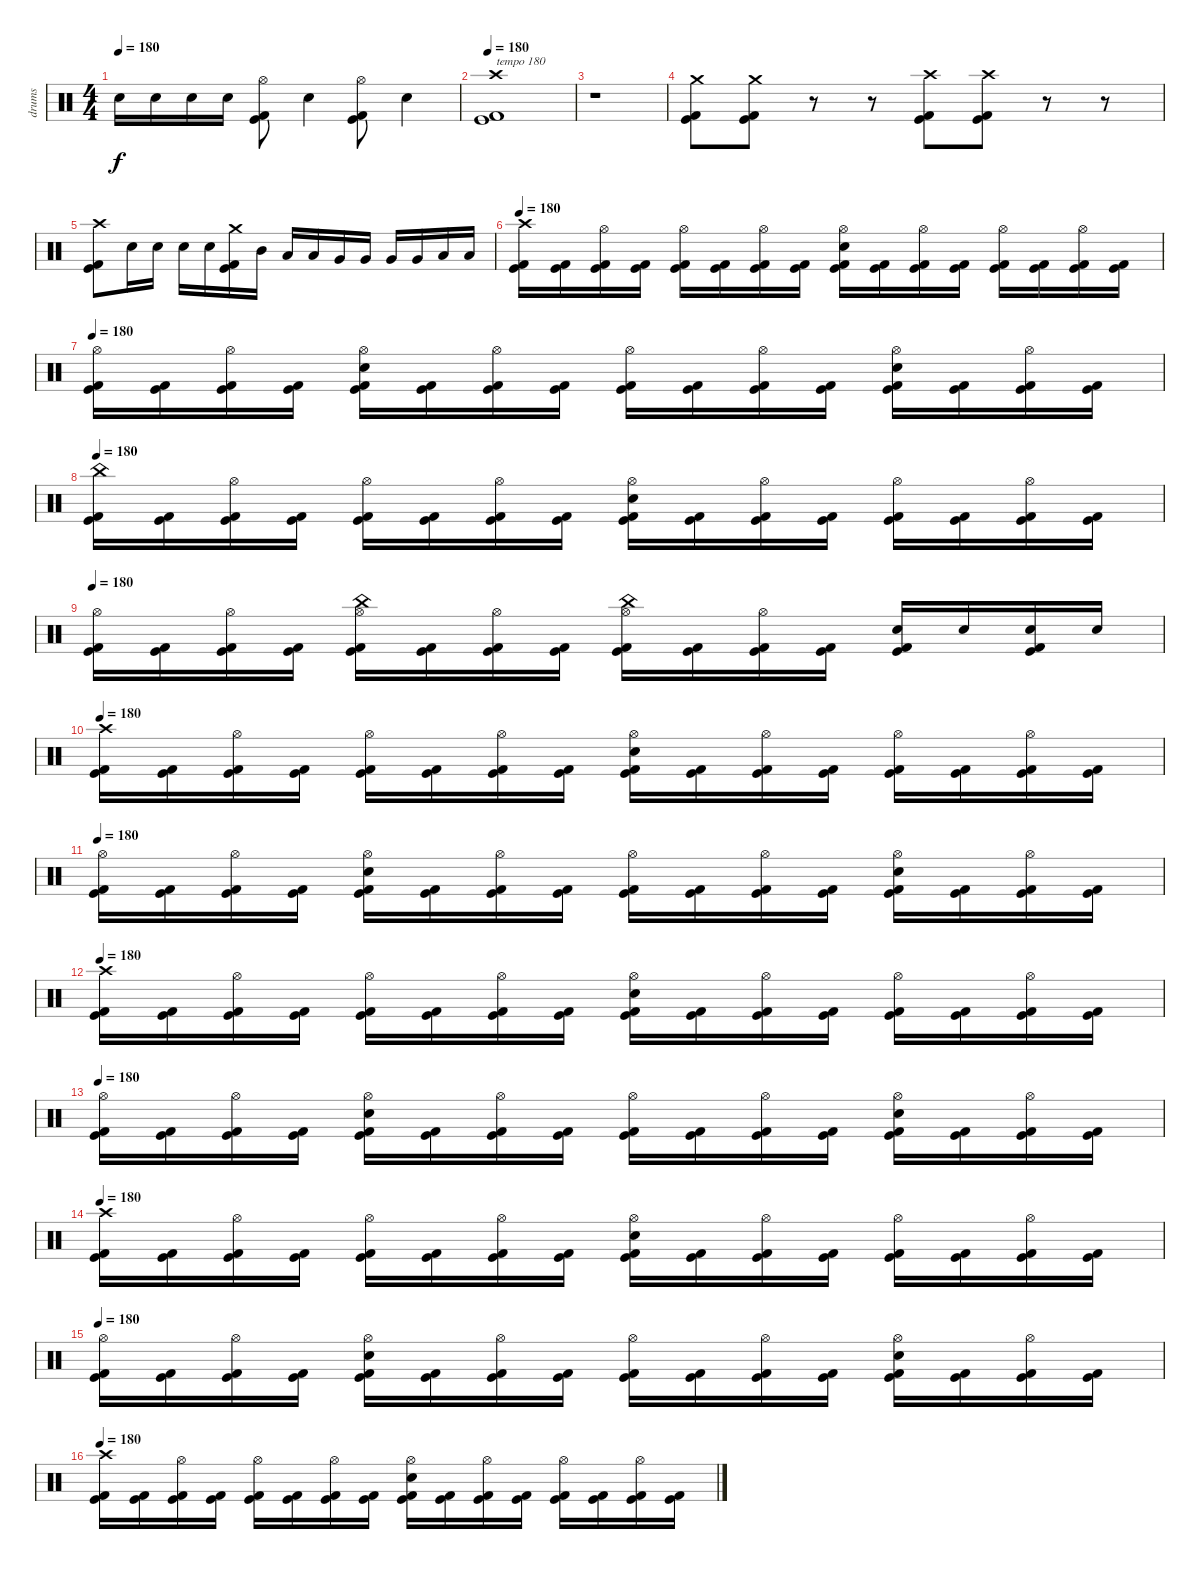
\track ("drums" "drums") {instrument percussion}
\staff {score}
\articulation defaults
\ts (4 4)
\tempo 180
\clef neutral
\ks c "Electric Snare (hit)".16{dy f} "Electric Snare (hit)".16 "Electric Snare (hit)".16 "Electric Snare (hit)".16
("Hi-Hat (open)" "Kick (hit) 2" "Kick (hit)").8 "Electric Snare (hit)".4 ("Hi-Hat (open)" "Kick (hit) 2" "Kick (hit)").8 "Electric Snare (hit)".4 |
\tempo 180
("Crash high (hit)" "Kick (hit) 2" "Kick (hit)").1{txt "tempo 180"} |
r.1 |
("Crash medium (hit)" "Kick (hit) 2" "Kick (hit)").8 ("Crash medium (hit)" "Kick (hit) 2" "Kick (hit)").8 r.8 r.8 ("Crash high (hit)" "Kick (hit) 2" "Kick (hit)").8 ("Crash high (hit)" "Kick (hit) 2" "Kick (hit)").8 r.8 r.8 |
("Crash high (hit)" "Kick (hit) 2" "Kick (hit)").8 "Electric Snare (hit)".16 "Electric Snare (hit)".16 "Electric Snare (hit)".16 "Electric Snare (hit)".16 ("Crash medium (hit)" "Kick (hit) 2" "Kick (hit)").16 "Mid Tom (hit)".16 "Low Tom (hit)".16 "Low Tom (hit)".16 "Very Low Tom (hit)".16 "Very Low Tom (hit)".16 "Very Low Tom (hit)".16 "Very Low Tom (hit)".16 "Low Floor Tom (hit)".16 "Low Floor Tom (hit)".16 |
\tempo 180
("Crash high (hit)" "Kick (hit) 2" "Kick (hit)").16 ("Kick (hit) 2" "Kick (hit)").16 ("Hi-Hat (open)" "Kick (hit) 2" "Kick (hit)").16 ("Kick (hit) 2" "Kick (hit)").16 ("Hi-Hat (open)" "Kick (hit) 2" "Kick (hit)").16 ("Kick (hit) 2" "Kick (hit)").16 ("Hi-Hat (open)" "Kick (hit) 2" "Kick (hit)").16 ("Kick (hit) 2" "Kick (hit)").16 ("Hi-Hat (open)" "Electric Snare (hit)" "Kick (hit) 2" "Kick (hit)").16 ("Kick (hit) 2" "Kick (hit)").16 ("Hi-Hat (open)" "Kick (hit) 2" "Kick (hit)").16 ("Kick (hit) 2" "Kick (hit)").16 ("Hi-Hat (open)" "Kick (hit) 2" "Kick (hit)").16 ("Kick (hit) 2" "Kick (hit)").16 ("Hi-Hat (open)" "Kick (hit) 2" "Kick (hit)").16 ("Kick (hit) 2" "Kick (hit)").16 |
\tempo 180
("Hi-Hat (open)" "Kick (hit) 2" "Kick (hit)").16 ("Kick (hit) 2" "Kick (hit)").16 ("Hi-Hat (open)" "Kick (hit) 2" "Kick (hit)").16 ("Kick (hit) 2" "Kick (hit)").16 ("Hi-Hat (open)" "Electric Snare (hit)" "Kick (hit) 2" "Kick (hit)").16 ("Kick (hit) 2" "Kick (hit)").16 ("Hi-Hat (open)" "Kick (hit) 2" "Kick (hit)").16 ("Kick (hit) 2" "Kick (hit)").16 ("Hi-Hat (open)" "Kick (hit) 2" "Kick (hit)").16 ("Kick (hit) 2" "Kick (hit)").16 ("Hi-Hat (open)" "Kick (hit) 2" "Kick (hit)").16 ("Kick (hit) 2" "Kick (hit)").16 ("Hi-Hat (open)" "Electric Snare (hit)" "Kick (hit) 2" "Kick (hit)").16 ("Kick (hit) 2" "Kick (hit)").16 ("Hi-Hat (open)" "Kick (hit) 2" "Kick (hit)").16 ("Kick (hit) 2" "Kick (hit)").16 |
\tempo 180
("China (hit)" "Kick (hit) 2" "Kick (hit)").16 ("Kick (hit) 2" "Kick (hit)").16 ("Hi-Hat (open)" "Kick (hit) 2" "Kick (hit)").16 ("Kick (hit) 2" "Kick (hit)").16 ("Hi-Hat (open)" "Kick (hit) 2" "Kick (hit)").16 ("Kick (hit) 2" "Kick (hit)").16 ("Hi-Hat (open)" "Kick (hit) 2" "Kick (hit)").16 ("Kick (hit) 2" "Kick (hit)").16 ("Hi-Hat (open)" "Electric Snare (hit)" "Kick (hit) 2" "Kick (hit)").16 ("Kick (hit) 2" "Kick (hit)").16 ("Hi-Hat (open)" "Kick (hit) 2" "Kick (hit)").16 ("Kick (hit) 2" "Kick (hit)").16 ("Hi-Hat (open)" "Kick (hit) 2" "Kick (hit)").16 ("Kick (hit) 2" "Kick (hit)").16 ("Hi-Hat (open)" "Kick (hit) 2" "Kick (hit)").16 ("Kick (hit) 2" "Kick (hit)").16 |
\tempo 180
("Hi-Hat (open)" "Kick (hit) 2" "Kick (hit)").16 ("Kick (hit) 2" "Kick (hit)").16 ("Hi-Hat (open)" "Kick (hit) 2" "Kick (hit)").16 ("Kick (hit) 2" "Kick (hit)").16 ("Hi-Hat (open)" "China (hit)" "Kick (hit) 2" "Kick (hit)").16 ("Kick (hit) 2" "Kick (hit)").16 ("Hi-Hat (open)" "Kick (hit) 2" "Kick (hit)").16 ("Kick (hit) 2" "Kick (hit)").16 ("Hi-Hat (open)" "China (hit)" "Kick (hit) 2" "Kick (hit)").16 ("Kick (hit) 2" "Kick (hit)").16 ("Hi-Hat (open)" "Kick (hit) 2" "Kick (hit)").16 ("Kick (hit) 2" "Kick (hit)").16 ("Electric Snare (hit)" "Kick (hit) 2" "Kick (hit)").16 "Electric Snare (hit)".16 ("Electric Snare (hit)" "Kick (hit) 2" "Kick (hit)").16 "Electric Snare (hit)".16 |
\tempo 180
("Crash high (hit)" "Kick (hit) 2" "Kick (hit)").16 ("Kick (hit) 2" "Kick (hit)").16 ("Hi-Hat (open)" "Kick (hit) 2" "Kick (hit)").16 ("Kick (hit) 2" "Kick (hit)").16 ("Hi-Hat (open)" "Kick (hit) 2" "Kick (hit)").16 ("Kick (hit) 2" "Kick (hit)").16 ("Hi-Hat (open)" "Kick (hit) 2" "Kick (hit)").16 ("Kick (hit) 2" "Kick (hit)").16 ("Hi-Hat (open)" "Electric Snare (hit)" "Kick (hit) 2" "Kick (hit)").16 ("Kick (hit) 2" "Kick (hit)").16 ("Hi-Hat (open)" "Kick (hit) 2" "Kick (hit)").16 ("Kick (hit) 2" "Kick (hit)").16 ("Hi-Hat (open)" "Kick (hit) 2" "Kick (hit)").16 ("Kick (hit) 2" "Kick (hit)").16 ("Hi-Hat (open)" "Kick (hit) 2" "Kick (hit)").16 ("Kick (hit) 2" "Kick (hit)").16 |
\tempo 180
("Hi-Hat (open)" "Kick (hit) 2" "Kick (hit)").16 ("Kick (hit) 2" "Kick (hit)").16 ("Hi-Hat (open)" "Kick (hit) 2" "Kick (hit)").16 ("Kick (hit) 2" "Kick (hit)").16 ("Hi-Hat (open)" "Electric Snare (hit)" "Kick (hit) 2" "Kick (hit)").16 ("Kick (hit) 2" "Kick (hit)").16 ("Hi-Hat (open)" "Kick (hit) 2" "Kick (hit)").16 ("Kick (hit) 2" "Kick (hit)").16 ("Hi-Hat (open)" "Kick (hit) 2" "Kick (hit)").16 ("Kick (hit) 2" "Kick (hit)").16 ("Hi-Hat (open)" "Kick (hit) 2" "Kick (hit)").16 ("Kick (hit) 2" "Kick (hit)").16 ("Hi-Hat (open)" "Electric Snare (hit)" "Kick (hit) 2" "Kick (hit)").16 ("Kick (hit) 2" "Kick (hit)").16 ("Hi-Hat (open)" "Kick (hit) 2" "Kick (hit)").16 ("Kick (hit) 2" "Kick (hit)").16 |
\tempo 180
("Crash high (hit)" "Kick (hit) 2" "Kick (hit)").16 ("Kick (hit) 2" "Kick (hit)").16 ("Hi-Hat (open)" "Kick (hit) 2" "Kick (hit)").16 ("Kick (hit) 2" "Kick (hit)").16 ("Hi-Hat (open)" "Kick (hit) 2" "Kick (hit)").16 ("Kick (hit) 2" "Kick (hit)").16 ("Hi-Hat (open)" "Kick (hit) 2" "Kick (hit)").16 ("Kick (hit) 2" "Kick (hit)").16 ("Hi-Hat (open)" "Electric Snare (hit)" "Kick (hit) 2" "Kick (hit)").16 ("Kick (hit) 2" "Kick (hit)").16 ("Hi-Hat (open)" "Kick (hit) 2" "Kick (hit)").16 ("Kick (hit) 2" "Kick (hit)").16 ("Hi-Hat (open)" "Kick (hit) 2" "Kick (hit)").16 ("Kick (hit) 2" "Kick (hit)").16 ("Hi-Hat (open)" "Kick (hit) 2" "Kick (hit)").16 ("Kick (hit) 2" "Kick (hit)").16 |
\tempo 180
("Hi-Hat (open)" "Kick (hit) 2" "Kick (hit)").16 ("Kick (hit) 2" "Kick (hit)").16 ("Hi-Hat (open)" "Kick (hit) 2" "Kick (hit)").16 ("Kick (hit) 2" "Kick (hit)").16 ("Hi-Hat (open)" "Electric Snare (hit)" "Kick (hit) 2" "Kick (hit)").16 ("Kick (hit) 2" "Kick (hit)").16 ("Hi-Hat (open)" "Kick (hit) 2" "Kick (hit)").16 ("Kick (hit) 2" "Kick (hit)").16 ("Hi-Hat (open)" "Kick (hit) 2" "Kick (hit)").16 ("Kick (hit) 2" "Kick (hit)").16 ("Hi-Hat (open)" "Kick (hit) 2" "Kick (hit)").16 ("Kick (hit) 2" "Kick (hit)").16 ("Hi-Hat (open)" "Electric Snare (hit)" "Kick (hit) 2" "Kick (hit)").16 ("Kick (hit) 2" "Kick (hit)").16 ("Hi-Hat (open)" "Kick (hit) 2" "Kick (hit)").16 ("Kick (hit) 2" "Kick (hit)").16 |
\tempo 180
("Crash high (hit)" "Kick (hit) 2" "Kick (hit)").16 ("Kick (hit) 2" "Kick (hit)").16 ("Hi-Hat (open)" "Kick (hit) 2" "Kick (hit)").16 ("Kick (hit) 2" "Kick (hit)").16 ("Hi-Hat (open)" "Kick (hit) 2" "Kick (hit)").16 ("Kick (hit) 2" "Kick (hit)").16 ("Hi-Hat (open)" "Kick (hit) 2" "Kick (hit)").16 ("Kick (hit) 2" "Kick (hit)").16 ("Hi-Hat (open)" "Electric Snare (hit)" "Kick (hit) 2" "Kick (hit)").16 ("Kick (hit) 2" "Kick (hit)").16 ("Hi-Hat (open)" "Kick (hit) 2" "Kick (hit)").16 ("Kick (hit) 2" "Kick (hit)").16 ("Hi-Hat (open)" "Kick (hit) 2" "Kick (hit)").16 ("Kick (hit) 2" "Kick (hit)").16 ("Hi-Hat (open)" "Kick (hit) 2" "Kick (hit)").16 ("Kick (hit) 2" "Kick (hit)").16 |
\tempo 180
("Hi-Hat (open)" "Kick (hit) 2" "Kick (hit)").16 ("Kick (hit) 2" "Kick (hit)").16 ("Hi-Hat (open)" "Kick (hit) 2" "Kick (hit)").16 ("Kick (hit) 2" "Kick (hit)").16 ("Hi-Hat (open)" "Electric Snare (hit)" "Kick (hit) 2" "Kick (hit)").16 ("Kick (hit) 2" "Kick (hit)").16 ("Hi-Hat (open)" "Kick (hit) 2" "Kick (hit)").16 ("Kick (hit) 2" "Kick (hit)").16 ("Hi-Hat (open)" "Kick (hit) 2" "Kick (hit)").16 ("Kick (hit) 2" "Kick (hit)").16 ("Hi-Hat (open)" "Kick (hit) 2" "Kick (hit)").16 ("Kick (hit) 2" "Kick (hit)").16 ("Hi-Hat (open)" "Electric Snare (hit)" "Kick (hit) 2" "Kick (hit)").16 ("Kick (hit) 2" "Kick (hit)").16 ("Hi-Hat (open)" "Kick (hit) 2" "Kick (hit)").16 ("Kick (hit) 2" "Kick (hit)").16 |
\tempo 180
("Crash high (hit)" "Kick (hit) 2" "Kick (hit)").16 ("Kick (hit) 2" "Kick (hit)").16 ("Hi-Hat (open)" "Kick (hit) 2" "Kick (hit)").16 ("Kick (hit) 2" "Kick (hit)").16 ("Hi-Hat (open)" "Kick (hit) 2" "Kick (hit)").16 ("Kick (hit) 2" "Kick (hit)").16 ("Hi-Hat (open)" "Kick (hit) 2" "Kick (hit)").16 ("Kick (hit) 2" "Kick (hit)").16 ("Hi-Hat (open)" "Electric Snare (hit)" "Kick (hit) 2" "Kick (hit)").16 ("Kick (hit) 2" "Kick (hit)").16 ("Hi-Hat (open)" "Kick (hit) 2" "Kick (hit)").16 ("Kick (hit) 2" "Kick (hit)").16 ("Hi-Hat (open)" "Kick (hit) 2" "Kick (hit)").16 ("Kick (hit) 2" "Kick (hit)").16 ("Hi-Hat (open)" "Kick (hit) 2" "Kick (hit)").16 ("Kick (hit) 2" "Kick (hit)").16
